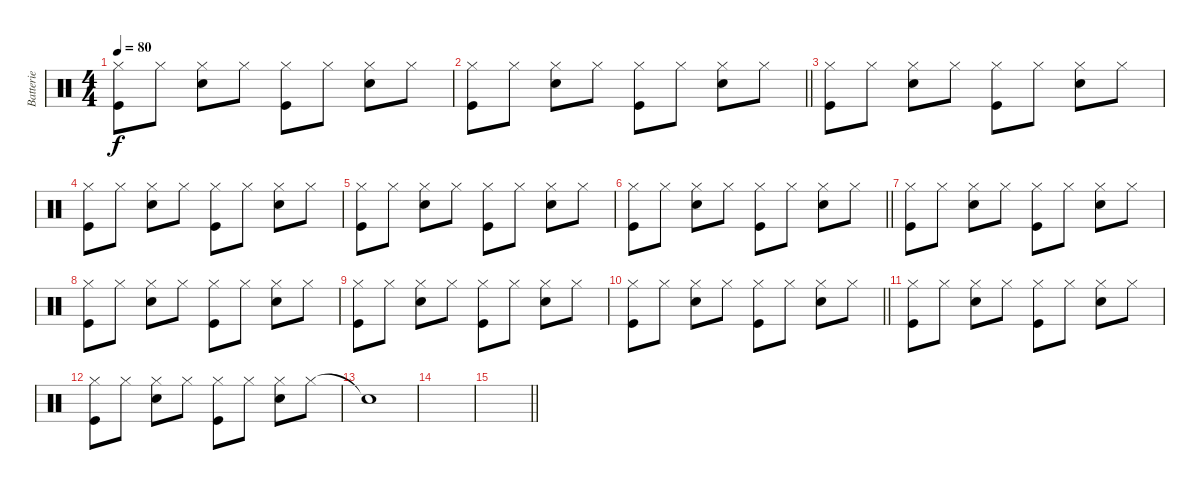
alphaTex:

\track ("Batterie" "Batterie") {instrument percussion}
\staff {score}
\articulation defaults
\ts (4 4)
\tempo 80
\clef neutral
\ks c
("Kick (hit)" "Hi-Hat (closed)").8{dy f} "Hi-Hat (closed)".8 ("Snare (hit) 2" "Hi-Hat (closed)").8 "Hi-Hat (closed)".8 ("Kick (hit)" "Hi-Hat (closed)").8 "Hi-Hat (closed)".8 ("Snare (hit) 2" "Hi-Hat (closed)").8 "Hi-Hat (closed)".8 |
\barLineRight lightlight
("Kick (hit)" "Hi-Hat (closed)").8 "Hi-Hat (closed)".8 ("Snare (hit) 2" "Hi-Hat (closed)").8 "Hi-Hat (closed)".8 ("Kick (hit)" "Hi-Hat (closed)").8 "Hi-Hat (closed)".8 ("Snare (hit) 2" "Hi-Hat (closed)").8 "Hi-Hat (closed)".8 |
("Kick (hit)" "Hi-Hat (closed)").8 "Hi-Hat (closed)".8 ("Snare (hit) 2" "Hi-Hat (closed)").8 "Hi-Hat (closed)".8 ("Kick (hit)" "Hi-Hat (closed)").8 "Hi-Hat (closed)".8 ("Snare (hit) 2" "Hi-Hat (closed)").8 "Hi-Hat (closed)".8 |
("Kick (hit)" "Hi-Hat (closed)").8 "Hi-Hat (closed)".8 ("Snare (hit) 2" "Hi-Hat (closed)").8 "Hi-Hat (closed)".8 ("Kick (hit)" "Hi-Hat (closed)").8 "Hi-Hat (closed)".8 ("Snare (hit) 2" "Hi-Hat (closed)").8 "Hi-Hat (closed)".8 |
("Kick (hit)" "Hi-Hat (closed)").8 "Hi-Hat (closed)".8 ("Snare (hit) 2" "Hi-Hat (closed)").8 "Hi-Hat (closed)".8 ("Kick (hit)" "Hi-Hat (closed)").8 "Hi-Hat (closed)".8 ("Snare (hit) 2" "Hi-Hat (closed)").8 "Hi-Hat (closed)".8 |
\barLineRight lightlight
("Kick (hit)" "Hi-Hat (closed)").8 "Hi-Hat (closed)".8 ("Snare (hit) 2" "Hi-Hat (closed)").8 "Hi-Hat (closed)".8 ("Kick (hit)" "Hi-Hat (closed)").8 "Hi-Hat (closed)".8 ("Snare (hit) 2" "Hi-Hat (closed)").8 "Hi-Hat (closed)".8 |
("Kick (hit)" "Hi-Hat (closed)").8 "Hi-Hat (closed)".8 ("Snare (hit) 2" "Hi-Hat (closed)").8 "Hi-Hat (closed)".8 ("Kick (hit)" "Hi-Hat (closed)").8 "Hi-Hat (closed)".8 ("Snare (hit) 2" "Hi-Hat (closed)").8 "Hi-Hat (closed)".8 |
("Kick (hit)" "Hi-Hat (closed)").8 "Hi-Hat (closed)".8 ("Snare (hit) 2" "Hi-Hat (closed)").8 "Hi-Hat (closed)".8 ("Kick (hit)" "Hi-Hat (closed)").8 "Hi-Hat (closed)".8 ("Snare (hit) 2" "Hi-Hat (closed)").8 "Hi-Hat (closed)".8 |
("Kick (hit)" "Hi-Hat (closed)").8 "Hi-Hat (closed)".8 ("Snare (hit) 2" "Hi-Hat (closed)").8 "Hi-Hat (closed)".8 ("Kick (hit)" "Hi-Hat (closed)").8 "Hi-Hat (closed)".8 ("Snare (hit) 2" "Hi-Hat (closed)").8 "Hi-Hat (closed)".8 |
\barLineRight lightlight
("Kick (hit)" "Hi-Hat (closed)").8 "Hi-Hat (closed)".8 ("Snare (hit) 2" "Hi-Hat (closed)").8 "Hi-Hat (closed)".8 ("Kick (hit)" "Hi-Hat (closed)").8 "Hi-Hat (closed)".8 ("Snare (hit) 2" "Hi-Hat (closed)").8 "Hi-Hat (closed)".8 |
("Kick (hit)" "Hi-Hat (closed)").8 "Hi-Hat (closed)".8 ("Snare (hit) 2" "Hi-Hat (closed)").8 "Hi-Hat (closed)".8 ("Kick (hit)" "Hi-Hat (closed)").8 "Hi-Hat (closed)".8 ("Snare (hit) 2" "Hi-Hat (closed)").8 "Hi-Hat (closed)".8 |
("Kick (hit)" "Hi-Hat (closed)").8 "Hi-Hat (closed)".8 ("Snare (hit) 2" "Hi-Hat (closed)").8 "Hi-Hat (closed)".8 ("Kick (hit)" "Hi-Hat (closed)").8 "Hi-Hat (closed)".8 ("Snare (hit) 2" "Hi-Hat (closed)").8 "Hi-Hat (closed)".8 |
"Snare (hit)"{t}.1 |
|
\barLineRight lightlight
